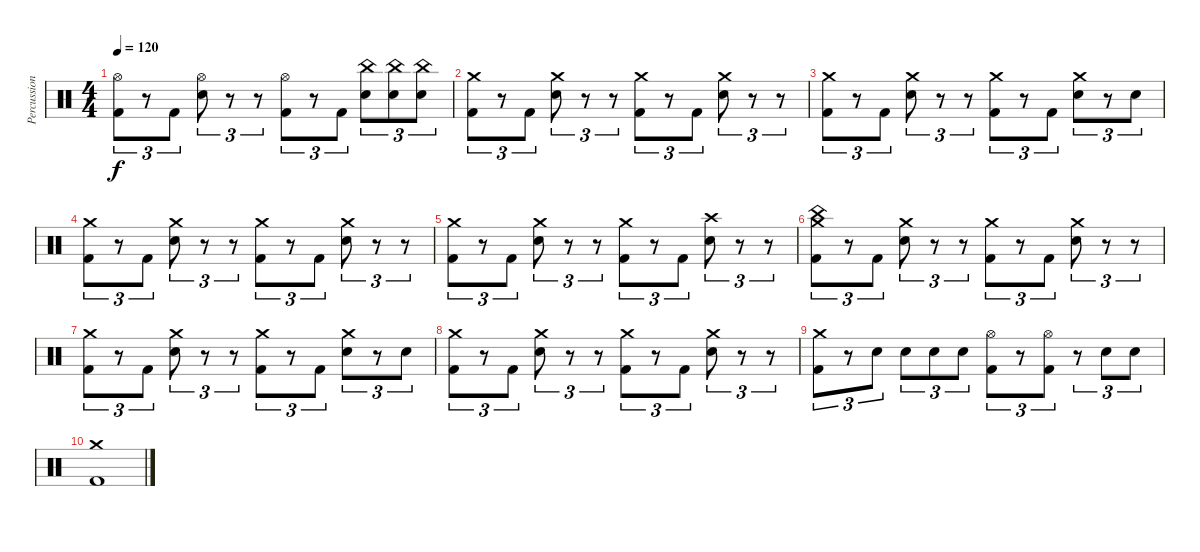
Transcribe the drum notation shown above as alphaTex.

\track ("Percussion" "Percussion") {instrument percussion}
\staff {score}
\articulation defaults
\ts (4 4)
\tempo 120
\clef neutral
\ks c
("Hi-Hat (open)" "Kick (hit) 2").8{tu (3 2) dy f} r.8{tu (3 2)} "Kick (hit) 2".8{tu (3 2)} ("Hi-Hat (open)" "Electric Snare (hit)").8{tu (3 2)} r.8{tu (3 2)} r.8{tu (3 2)} ("Hi-Hat (open)" "Kick (hit) 2").8{tu (3 2)} r.8{tu (3 2)} "Kick (hit) 2".8{tu (3 2)} ("China (hit)" "Electric Snare (hit)").8{tu (3 2)} ("China (hit)" "Electric Snare (hit)").8{tu (3 2)} ("China (hit)" "Electric Snare (hit)").8{tu (3 2)} |
("Crash medium (hit)" "Kick (hit) 2").8{tu (3 2)} r.8{tu (3 2)} "Kick (hit) 2".8{tu (3 2)} ("Crash medium (hit)" "Electric Snare (hit)").8{tu (3 2)} r.8{tu (3 2)} r.8{tu (3 2)} ("Crash medium (hit)" "Kick (hit) 2").8{tu (3 2)} r.8{tu (3 2)} "Kick (hit) 2".8{tu (3 2)} ("Crash medium (hit)" "Electric Snare (hit)").8{tu (3 2)} r.8{tu (3 2)} r.8{tu (3 2)} |
("Crash medium (hit)" "Kick (hit) 2").8{tu (3 2)} r.8{tu (3 2)} "Kick (hit) 2".8{tu (3 2)} ("Crash medium (hit)" "Electric Snare (hit)").8{tu (3 2)} r.8{tu (3 2)} r.8{tu (3 2)} ("Crash medium (hit)" "Kick (hit) 2").8{tu (3 2)} r.8{tu (3 2)} "Kick (hit) 2".8{tu (3 2)} ("Crash medium (hit)" "Electric Snare (hit)").8{tu (3 2)} r.8{tu (3 2)} "Electric Snare (hit)".8{tu (3 2)} |
("Crash medium (hit)" "Kick (hit) 2").8{tu (3 2)} r.8{tu (3 2)} "Kick (hit) 2".8{tu (3 2)} ("Crash medium (hit)" "Electric Snare (hit)").8{tu (3 2)} r.8{tu (3 2)} r.8{tu (3 2)} ("Crash medium (hit)" "Kick (hit) 2").8{tu (3 2)} r.8{tu (3 2)} "Kick (hit) 2".8{tu (3 2)} ("Crash medium (hit)" "Electric Snare (hit)").8{tu (3 2)} r.8{tu (3 2)} r.8{tu (3 2)} |
("Crash medium (hit)" "Kick (hit) 2").8{tu (3 2)} r.8{tu (3 2)} "Kick (hit) 2".8{tu (3 2)} ("Crash medium (hit)" "Electric Snare (hit)").8{tu (3 2)} r.8{tu (3 2)} r.8{tu (3 2)} ("Crash medium (hit)" "Kick (hit) 2").8{tu (3 2)} r.8{tu (3 2)} "Kick (hit) 2".8{tu (3 2)} ("Crash high (hit)" "Electric Snare (hit)").8{tu (3 2)} r.8{tu (3 2)} r.8{tu (3 2)} |
("China (hit)" "Crash medium (hit)" "Kick (hit) 2").8{tu (3 2)} r.8{tu (3 2)} "Kick (hit) 2".8{tu (3 2)} ("Crash medium (hit)" "Electric Snare (hit)").8{tu (3 2)} r.8{tu (3 2)} r.8{tu (3 2)} ("Crash medium (hit)" "Kick (hit) 2").8{tu (3 2)} r.8{tu (3 2)} "Kick (hit) 2".8{tu (3 2)} ("Crash medium (hit)" "Electric Snare (hit)").8{tu (3 2)} r.8{tu (3 2)} r.8{tu (3 2)} |
("Crash medium (hit)" "Kick (hit) 2").8{tu (3 2)} r.8{tu (3 2)} "Kick (hit) 2".8{tu (3 2)} ("Crash medium (hit)" "Electric Snare (hit)").8{tu (3 2)} r.8{tu (3 2)} r.8{tu (3 2)} ("Crash medium (hit)" "Kick (hit) 2").8{tu (3 2)} r.8{tu (3 2)} "Kick (hit) 2".8{tu (3 2)} ("Crash medium (hit)" "Electric Snare (hit)").8{tu (3 2)} r.8{tu (3 2)} "Electric Snare (hit)".8{tu (3 2)} |
("Crash medium (hit)" "Kick (hit) 2").8{tu (3 2)} r.8{tu (3 2)} "Kick (hit) 2".8{tu (3 2)} ("Crash medium (hit)" "Electric Snare (hit)").8{tu (3 2)} r.8{tu (3 2)} r.8{tu (3 2)} ("Crash medium (hit)" "Kick (hit) 2").8{tu (3 2)} r.8{tu (3 2)} "Kick (hit) 2".8{tu (3 2)} ("Crash medium (hit)" "Electric Snare (hit)").8{tu (3 2)} r.8{tu (3 2)} r.8{tu (3 2)} |
("Crash medium (hit)" "Kick (hit) 2").8{tu (3 2)} r.8{tu (3 2)} "Electric Snare (hit)".8{tu (3 2)} "Electric Snare (hit)".8{tu (3 2)} "Electric Snare (hit)".8{tu (3 2)} "Electric Snare (hit)".8{tu (3 2)} ("Hi-Hat (open)" "Kick (hit) 2").8{tu (3 2)} r.8{tu (3 2)} ("Hi-Hat (open)" "Kick (hit) 2").8{tu (3 2)} r.8{tu (3 2)} "Electric Snare (hit)".8{tu (3 2)} "Electric Snare (hit)".8{tu (3 2)} |
("Crash medium (hit)" "Kick (hit) 2").1
